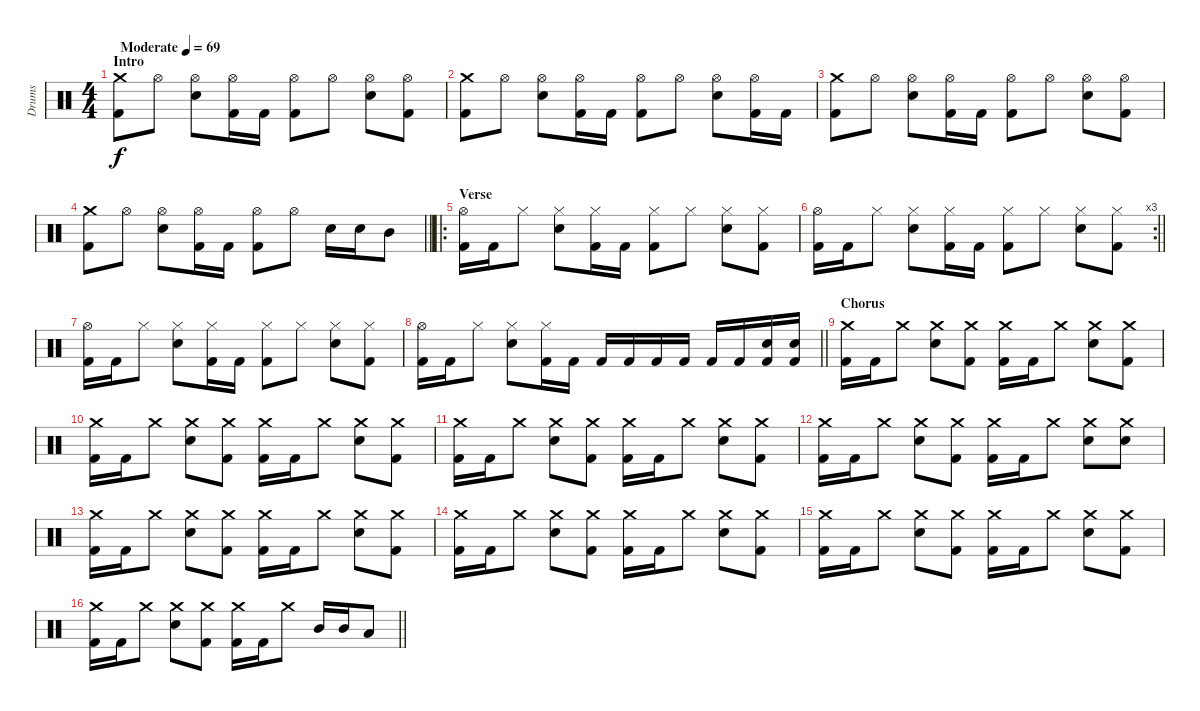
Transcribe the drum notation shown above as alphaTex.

\track ("Drums" "Drums") {instrument percussion}
\staff {score}
\articulation defaults
\ts (4 4)
\section ("" "Intro")
\tempo (69 "Moderate")
\clef neutral
\ks c
("Crash medium (hit)" "Kick (hit) 2").8{dy f} "Hi-Hat (open)".8 ("Hi-Hat (open)" "Electric Snare (hit)").8 ("Hi-Hat (open)" "Kick (hit) 2").16 "Kick (hit) 2".16 ("Hi-Hat (open)" "Kick (hit) 2").8 "Hi-Hat (open)".8 ("Hi-Hat (open)" "Electric Snare (hit)").8 ("Hi-Hat (open)" "Kick (hit) 2").8 |
("Crash medium (hit)" "Kick (hit) 2").8 "Hi-Hat (open)".8 ("Hi-Hat (open)" "Electric Snare (hit)").8 ("Hi-Hat (open)" "Kick (hit) 2").16 "Kick (hit) 2".16 ("Hi-Hat (open)" "Kick (hit) 2").8 "Hi-Hat (open)".8 ("Hi-Hat (open)" "Electric Snare (hit)").8 ("Hi-Hat (open)" "Kick (hit) 2").16 "Kick (hit) 2".16 |
("Crash medium (hit)" "Kick (hit) 2").8 "Hi-Hat (open)".8 ("Hi-Hat (open)" "Electric Snare (hit)").8 ("Hi-Hat (open)" "Kick (hit) 2").16 "Kick (hit) 2".16 ("Hi-Hat (open)" "Kick (hit) 2").8 "Hi-Hat (open)".8 ("Hi-Hat (open)" "Electric Snare (hit)").8 ("Hi-Hat (open)" "Kick (hit) 2").8 |
\barLineRight lightlight
("Crash medium (hit)" "Kick (hit) 2").8 "Hi-Hat (open)".8 ("Hi-Hat (open)" "Electric Snare (hit)").8 ("Hi-Hat (open)" "Kick (hit) 2").16 "Kick (hit) 2".16 ("Hi-Hat (open)" "Kick (hit) 2").8 "Hi-Hat (open)".8 "Electric Snare (hit)".16 "Electric Snare (hit)".16 "Mid Tom (hit)".8 |
\ro
\section ("" "Verse")
("Hi-Hat (open)" "Kick (hit) 2").16 "Kick (hit) 2".16 "Hi-Hat (closed)".8 ("Hi-Hat (closed)" "Electric Snare (hit)").8 ("Hi-Hat (closed)" "Kick (hit) 2").16 "Kick (hit) 2".16 ("Hi-Hat (closed)" "Kick (hit) 2").8 "Hi-Hat (closed)".8 ("Hi-Hat (closed)" "Electric Snare (hit)").8 ("Hi-Hat (closed)" "Kick (hit) 2").8 |
\rc 3
\barLineRight lightlight
("Hi-Hat (open)" "Kick (hit) 2").16 "Kick (hit) 2".16 "Hi-Hat (closed)".8 ("Hi-Hat (closed)" "Electric Snare (hit)").8 ("Hi-Hat (closed)" "Kick (hit) 2").16 "Kick (hit) 2".16 ("Hi-Hat (closed)" "Kick (hit) 2").8 "Hi-Hat (closed)".8 ("Hi-Hat (closed)" "Electric Snare (hit)").8 ("Hi-Hat (closed)" "Kick (hit) 2").8 |
("Hi-Hat (open)" "Kick (hit) 2").16 "Kick (hit) 2".16 "Hi-Hat (closed)".8 ("Hi-Hat (closed)" "Electric Snare (hit)").8 ("Hi-Hat (closed)" "Kick (hit) 2").16 "Kick (hit) 2".16 ("Hi-Hat (closed)" "Kick (hit) 2").8 "Hi-Hat (closed)".8 ("Hi-Hat (closed)" "Electric Snare (hit)").8 ("Hi-Hat (closed)" "Kick (hit) 2").8 |
\barLineRight lightlight
("Hi-Hat (open)" "Kick (hit) 2").16 "Kick (hit) 2".16 "Hi-Hat (closed)".8 ("Hi-Hat (closed)" "Electric Snare (hit)").8 ("Hi-Hat (closed)" "Kick (hit) 2").16 "Kick (hit) 2".16 "Kick (hit) 2".16 "Kick (hit) 2".16 "Kick (hit) 2".16 "Kick (hit) 2".16 "Kick (hit) 2".16 "Kick (hit) 2".16 ("Electric Snare (hit)" "Kick (hit) 2").16 ("Electric Snare (hit)" "Kick (hit) 2").16 |
\section ("" "Chorus")
("Crash medium (hit)" "Kick (hit) 2").16 "Kick (hit) 2".16 "Crash medium (hit)".8 ("Crash medium (hit)" "Electric Snare (hit)").8 ("Crash medium (hit)" "Kick (hit) 2").8 ("Crash medium (hit)" "Kick (hit) 2").16 "Kick (hit) 2".16 "Crash medium (hit)".8 ("Crash medium (hit)" "Electric Snare (hit)").8 ("Crash medium (hit)" "Kick (hit) 2").8 |
("Crash medium (hit)" "Kick (hit) 2").16 "Kick (hit) 2".16 "Crash medium (hit)".8 ("Crash medium (hit)" "Electric Snare (hit)").8 ("Crash medium (hit)" "Kick (hit) 2").8 ("Crash medium (hit)" "Kick (hit) 2").16 "Kick (hit) 2".16 "Crash medium (hit)".8 ("Crash medium (hit)" "Electric Snare (hit)").8 ("Crash medium (hit)" "Kick (hit) 2").8 |
("Crash medium (hit)" "Kick (hit) 2").16 "Kick (hit) 2".16 "Crash medium (hit)".8 ("Crash medium (hit)" "Electric Snare (hit)").8 ("Crash medium (hit)" "Kick (hit) 2").8 ("Crash medium (hit)" "Kick (hit) 2").16 "Kick (hit) 2".16 "Crash medium (hit)".8 ("Crash medium (hit)" "Electric Snare (hit)").8 ("Crash medium (hit)" "Kick (hit) 2").8 |
("Crash medium (hit)" "Kick (hit) 2").16 "Kick (hit) 2".16 "Crash medium (hit)".8 ("Crash medium (hit)" "Electric Snare (hit)").8 ("Crash medium (hit)" "Kick (hit) 2").8 ("Crash medium (hit)" "Kick (hit) 2").16 "Kick (hit) 2".16 "Crash medium (hit)".8 ("Crash medium (hit)" "Electric Snare (hit)").8 ("Crash medium (hit)" "Electric Snare (hit)").8 |
("Crash medium (hit)" "Kick (hit) 2").16 "Kick (hit) 2".16 "Crash medium (hit)".8 ("Crash medium (hit)" "Electric Snare (hit)").8 ("Crash medium (hit)" "Kick (hit) 2").8 ("Crash medium (hit)" "Kick (hit) 2").16 "Kick (hit) 2".16 "Crash medium (hit)".8 ("Crash medium (hit)" "Electric Snare (hit)").8 ("Crash medium (hit)" "Kick (hit) 2").8 |
("Crash medium (hit)" "Kick (hit) 2").16 "Kick (hit) 2".16 "Crash medium (hit)".8 ("Crash medium (hit)" "Electric Snare (hit)").8 ("Crash medium (hit)" "Kick (hit) 2").8 ("Crash medium (hit)" "Kick (hit) 2").16 "Kick (hit) 2".16 "Crash medium (hit)".8 ("Crash medium (hit)" "Electric Snare (hit)").8 ("Crash medium (hit)" "Kick (hit) 2").8 |
("Crash medium (hit)" "Kick (hit) 2").16 "Kick (hit) 2".16 "Crash medium (hit)".8 ("Crash medium (hit)" "Electric Snare (hit)").8 ("Crash medium (hit)" "Kick (hit) 2").8 ("Crash medium (hit)" "Kick (hit) 2").16 "Kick (hit) 2".16 "Crash medium (hit)".8 ("Crash medium (hit)" "Electric Snare (hit)").8 ("Crash medium (hit)" "Kick (hit) 2").8 |
\barLineRight lightlight
("Crash medium (hit)" "Kick (hit) 2").16 "Kick (hit) 2".16 "Crash medium (hit)".8 ("Crash medium (hit)" "Electric Snare (hit)").8 ("Crash medium (hit)" "Kick (hit) 2").8 ("Crash medium (hit)" "Kick (hit) 2").16 "Kick (hit) 2".16 "Crash medium (hit)".8 "Mid Tom (hit)".16 "Mid Tom (hit)".16 "Low Tom (hit)".8
